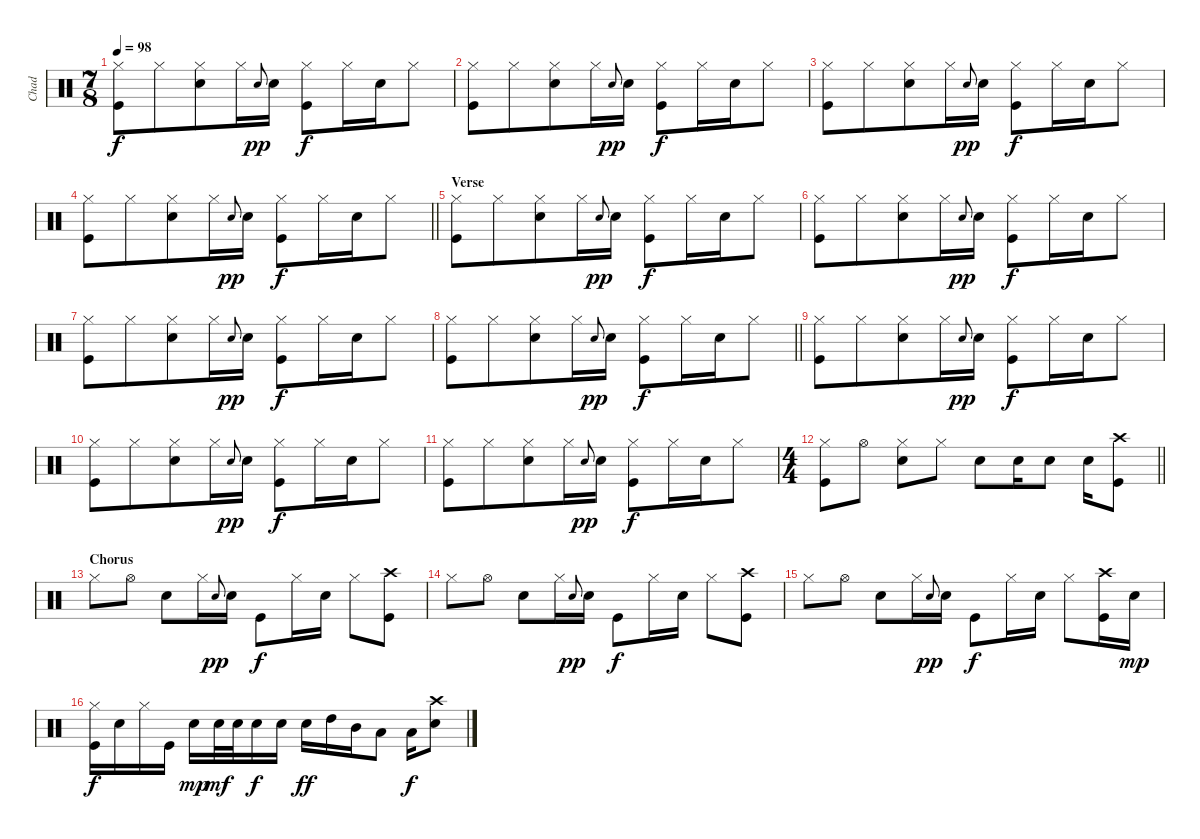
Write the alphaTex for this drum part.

\track ("Chad" "Chad") {instrument percussion}
\staff {score}
\articulation defaults
\ts (7 8)
\tempo 98
\clef neutral
\ks c
("Hi-Hat (closed)" "Kick (hit)").8{dy f} "Hi-Hat (closed)".8 ("Hi-Hat (closed)" "Snare (hit) 2").8 "Hi-Hat (closed)".16 "Snare (hit) 2".8{gr onbeat dy pp} "Snare (hit) 2".16 ("Hi-Hat (closed)" "Kick (hit)").8{dy f} "Hi-Hat (closed)".16 "Snare (hit) 2".16 "Hi-Hat (closed)".8 |
("Hi-Hat (closed)" "Kick (hit)").8 "Hi-Hat (closed)".8 ("Hi-Hat (closed)" "Snare (hit) 2").8 "Hi-Hat (closed)".16 "Snare (hit) 2".8{gr onbeat dy pp} "Snare (hit) 2".16 ("Hi-Hat (closed)" "Kick (hit)").8{dy f} "Hi-Hat (closed)".16 "Snare (hit) 2".16 "Hi-Hat (closed)".8 |
("Hi-Hat (closed)" "Kick (hit)").8 "Hi-Hat (closed)".8 ("Hi-Hat (closed)" "Snare (hit) 2").8 "Hi-Hat (closed)".16 "Snare (hit) 2".8{gr onbeat dy pp} "Snare (hit) 2".16 ("Hi-Hat (closed)" "Kick (hit)").8{dy f} "Hi-Hat (closed)".16 "Snare (hit) 2".16 "Hi-Hat (closed)".8 |
\barLineRight lightlight
("Hi-Hat (closed)" "Kick (hit)").8 "Hi-Hat (closed)".8 ("Hi-Hat (closed)" "Snare (hit) 2").8 "Hi-Hat (closed)".16 "Snare (hit) 2".8{gr onbeat dy pp} "Snare (hit) 2".16 ("Hi-Hat (closed)" "Kick (hit)").8{dy f} "Hi-Hat (closed)".16 "Snare (hit) 2".16 "Hi-Hat (closed)".8 |
\section ("" "Verse")
("Hi-Hat (closed)" "Kick (hit)").8 "Hi-Hat (closed)".8 ("Hi-Hat (closed)" "Snare (hit) 2").8 "Hi-Hat (closed)".16 "Snare (hit) 2".8{gr onbeat dy pp} "Snare (hit) 2".16 ("Hi-Hat (closed)" "Kick (hit)").8{dy f} "Hi-Hat (closed)".16 "Snare (hit) 2".16 "Hi-Hat (closed)".8 |
("Hi-Hat (closed)" "Kick (hit)").8 "Hi-Hat (closed)".8 ("Hi-Hat (closed)" "Snare (hit) 2").8 "Hi-Hat (closed)".16 "Snare (hit) 2".8{gr onbeat dy pp} "Snare (hit) 2".16 ("Hi-Hat (closed)" "Kick (hit)").8{dy f} "Hi-Hat (closed)".16 "Snare (hit) 2".16 "Hi-Hat (closed)".8 |
("Hi-Hat (closed)" "Kick (hit)").8 "Hi-Hat (closed)".8 ("Hi-Hat (closed)" "Snare (hit) 2").8 "Hi-Hat (closed)".16 "Snare (hit) 2".8{gr onbeat dy pp} "Snare (hit) 2".16 ("Hi-Hat (closed)" "Kick (hit)").8{dy f} "Hi-Hat (closed)".16 "Snare (hit) 2".16 "Hi-Hat (closed)".8 |
\barLineRight lightlight
("Hi-Hat (closed)" "Kick (hit)").8 "Hi-Hat (closed)".8 ("Hi-Hat (closed)" "Snare (hit) 2").8 "Hi-Hat (closed)".16 "Snare (hit) 2".8{gr onbeat dy pp} "Snare (hit) 2".16 ("Hi-Hat (closed)" "Kick (hit)").8{dy f} "Hi-Hat (closed)".16 "Snare (hit) 2".16 "Hi-Hat (closed)".8 |
("Hi-Hat (closed)" "Kick (hit)").8 "Hi-Hat (closed)".8 ("Hi-Hat (closed)" "Snare (hit) 2").8 "Hi-Hat (closed)".16 "Snare (hit) 2".8{gr onbeat dy pp} "Snare (hit) 2".16 ("Hi-Hat (closed)" "Kick (hit)").8{dy f} "Hi-Hat (closed)".16 "Snare (hit) 2".16 "Hi-Hat (closed)".8 |
("Hi-Hat (closed)" "Kick (hit)").8 "Hi-Hat (closed)".8 ("Hi-Hat (closed)" "Snare (hit) 2").8 "Hi-Hat (closed)".16 "Snare (hit) 2".8{gr onbeat dy pp} "Snare (hit) 2".16 ("Hi-Hat (closed)" "Kick (hit)").8{dy f} "Hi-Hat (closed)".16 "Snare (hit) 2".16 "Hi-Hat (closed)".8 |
("Hi-Hat (closed)" "Kick (hit)").8 "Hi-Hat (closed)".8 ("Hi-Hat (closed)" "Snare (hit) 2").8 "Hi-Hat (closed)".16 "Snare (hit) 2".8{gr onbeat dy pp} "Snare (hit) 2".16 ("Hi-Hat (closed)" "Kick (hit)").8{dy f} "Hi-Hat (closed)".16 "Snare (hit) 2".16 "Hi-Hat (closed)".8 |
\ts (4 4)
\barLineRight lightlight
("Hi-Hat (closed)" "Kick (hit)").8 "Hi-Hat (open)".8 ("Hi-Hat (closed)" "Snare (hit) 2").8 "Hi-Hat (closed)".8 "Snare (hit) 2".8 "Snare (hit) 2".16 "Snare (hit) 2".8 "Snare (hit) 2".16 ("Crash high (hit)" "Kick (hit)").8 |
\section ("" "Chorus")
"Hi-Hat (closed)".8 "Hi-Hat (open)".8 "Snare (hit) 2".8 "Hi-Hat (closed)".16 "Snare (hit) 2".8{gr onbeat dy pp} "Snare (hit) 2".16 "Kick (hit)".8{dy f} "Hi-Hat (closed)".16 "Snare (hit) 2".16 "Hi-Hat (closed)".8 ("Crash high (hit)" "Kick (hit)").8 |
"Hi-Hat (closed)".8 "Hi-Hat (open)".8 "Snare (hit) 2".8 "Hi-Hat (closed)".16 "Snare (hit) 2".8{gr onbeat dy pp} "Snare (hit) 2".16 "Kick (hit)".8{dy f} "Hi-Hat (closed)".16 "Snare (hit) 2".16 "Hi-Hat (closed)".8 ("Crash high (hit)" "Kick (hit)").8 |
"Hi-Hat (closed)".8 "Hi-Hat (open)".8 "Snare (hit) 2".8 "Hi-Hat (closed)".16 "Snare (hit) 2".8{gr onbeat dy pp} "Snare (hit) 2".16 "Kick (hit)".8{dy f} "Hi-Hat (closed)".16 "Snare (hit) 2".16 "Hi-Hat (closed)".8 ("Crash high (hit)" "Kick (hit)").16 "Snare (hit) 2".16{dy mp} |
("Hi-Hat (closed)" "Kick (hit)").16{dy f} "Snare (hit) 2".16 "Hi-Hat (closed)".16 "Kick (hit)".16 "Snare (hit) 2".16{dy mp} "Snare (hit) 2".32{dy mf} "Snare (hit) 2".32 "Snare (hit) 2".16{dy f} "Snare (hit) 2".16 "Snare (hit) 2".16{dy ff} "High Tom (hit)".16 "Mid Tom (hit)".16 "Low Tom (hit)".8 "Low Tom (hit)".16{dy f} ("Crash high (hit)" "Snare (hit)").8
